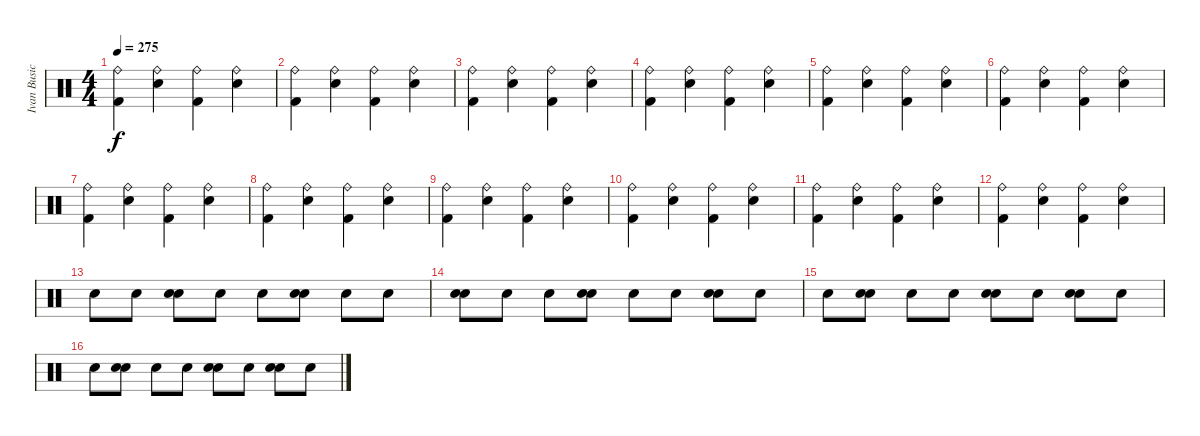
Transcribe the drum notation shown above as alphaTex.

\track ("Ivan Busic" "Ivan Busic") {instrument percussion}
\staff {score}
\articulation defaults
\ts (4 4)
\tempo 275
\clef neutral
\ks c
("Ride (bell)" "Kick (hit) 2").4{dy f} ("Ride (bell)" "Electric Snare (hit)").4 ("Ride (bell)" "Kick (hit) 2").4 ("Ride (bell)" "Electric Snare (hit)").4 |
("Ride (bell)" "Kick (hit) 2").4 ("Ride (bell)" "Electric Snare (hit)").4 ("Ride (bell)" "Kick (hit) 2").4 ("Ride (bell)" "Electric Snare (hit)").4 |
("Ride (bell)" "Kick (hit) 2").4 ("Ride (bell)" "Electric Snare (hit)").4 ("Ride (bell)" "Kick (hit) 2").4 ("Ride (bell)" "Electric Snare (hit)").4 |
("Ride (bell)" "Kick (hit) 2").4 ("Ride (bell)" "Electric Snare (hit)").4 ("Ride (bell)" "Kick (hit) 2").4 ("Ride (bell)" "Electric Snare (hit)").4 |
("Ride (bell)" "Kick (hit) 2").4 ("Ride (bell)" "Electric Snare (hit)").4 ("Ride (bell)" "Kick (hit) 2").4 ("Ride (bell)" "Electric Snare (hit)").4 |
("Ride (bell)" "Kick (hit) 2").4 ("Ride (bell)" "Electric Snare (hit)").4 ("Ride (bell)" "Kick (hit) 2").4 ("Ride (bell)" "Electric Snare (hit)").4 |
("Ride (bell)" "Kick (hit) 2").4 ("Ride (bell)" "Electric Snare (hit)").4 ("Ride (bell)" "Kick (hit) 2").4 ("Ride (bell)" "Electric Snare (hit)").4 |
("Ride (bell)" "Kick (hit) 2").4 ("Ride (bell)" "Electric Snare (hit)").4 ("Ride (bell)" "Kick (hit) 2").4 ("Ride (bell)" "Electric Snare (hit)").4 |
("Ride (bell)" "Kick (hit) 2").4 ("Ride (bell)" "Electric Snare (hit)").4 ("Ride (bell)" "Kick (hit) 2").4 ("Ride (bell)" "Electric Snare (hit)").4 |
("Ride (bell)" "Kick (hit) 2").4 ("Ride (bell)" "Electric Snare (hit)").4 ("Ride (bell)" "Kick (hit) 2").4 ("Ride (bell)" "Electric Snare (hit)").4 |
("Ride (bell)" "Kick (hit) 2").4 ("Ride (bell)" "Electric Snare (hit)").4 ("Ride (bell)" "Kick (hit) 2").4 ("Ride (bell)" "Electric Snare (hit)").4 |
("Ride (bell)" "Kick (hit) 2").4 ("Ride (bell)" "Electric Snare (hit)").4 ("Ride (bell)" "Kick (hit) 2").4 ("Ride (bell)" "Electric Snare (hit)").4 |
"Electric Snare (hit)".8 "Electric Snare (hit)".8 ("Snare (hit) 2" "Electric Snare (hit)").8 "Electric Snare (hit)".8 "Electric Snare (hit)".8 ("Snare (hit) 2" "Electric Snare (hit)").8 "Electric Snare (hit)".8 "Electric Snare (hit)".8 |
("Snare (hit) 2" "Electric Snare (hit)").8 "Electric Snare (hit)".8 "Electric Snare (hit)".8 ("Snare (hit) 2" "Electric Snare (hit)").8 "Electric Snare (hit)".8 "Electric Snare (hit)".8 ("Snare (hit) 2" "Electric Snare (hit)").8 "Electric Snare (hit)".8 |
"Electric Snare (hit)".8 ("Snare (hit) 2" "Electric Snare (hit)").8 "Electric Snare (hit)".8 "Electric Snare (hit)".8 ("Snare (hit) 2" "Electric Snare (hit)").8 "Electric Snare (hit)".8 ("Snare (hit) 2" "Electric Snare (hit)").8 "Electric Snare (hit)".8 |
"Electric Snare (hit)".8 ("Snare (hit) 2" "Electric Snare (hit)").8 "Electric Snare (hit)".8 "Electric Snare (hit)".8 ("Snare (hit) 2" "Electric Snare (hit)").8 "Electric Snare (hit)".8 ("Snare (hit) 2" "Electric Snare (hit)").8 "Electric Snare (hit)".8
